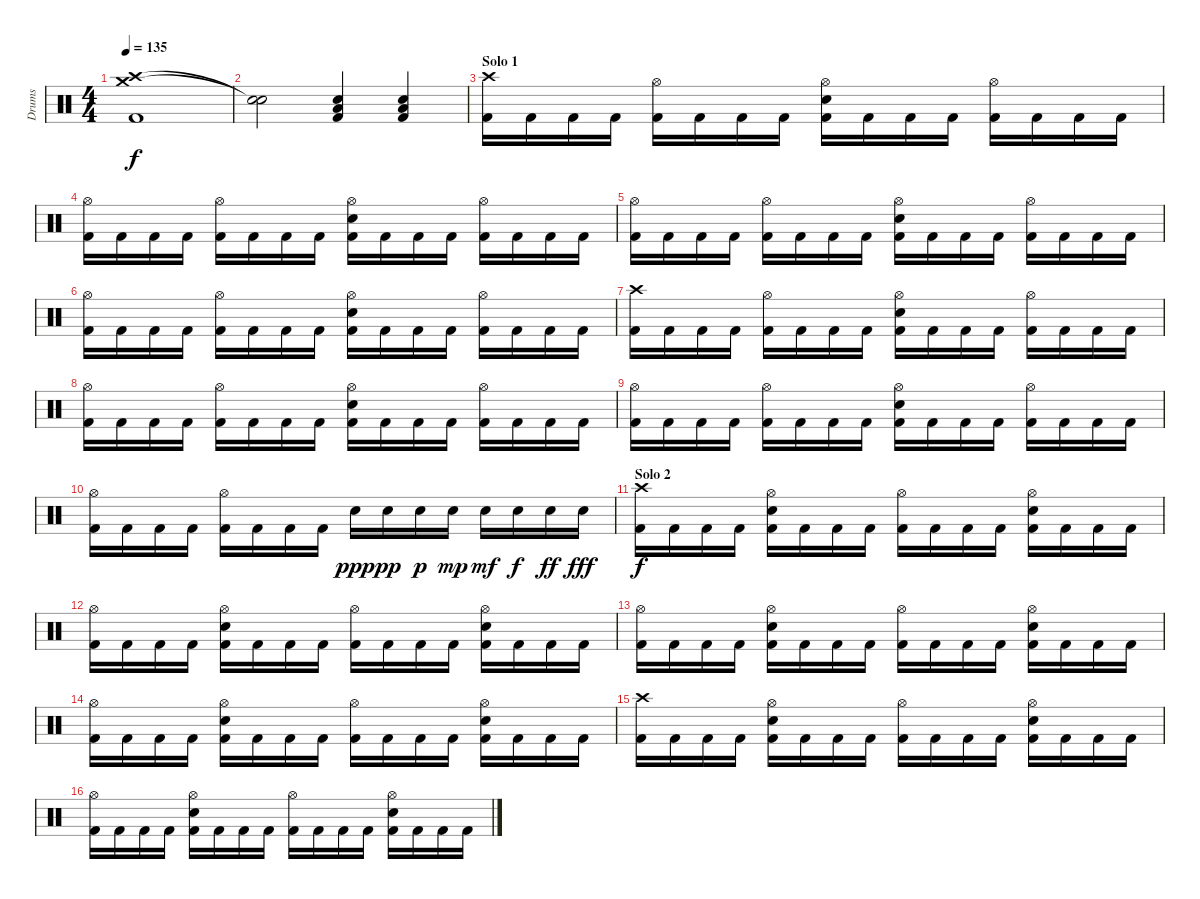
\track ("Drums" "Drums") {instrument percussion}
\staff {score}
\articulation defaults
\ts (4 4)
\section ("" "")
\tempo 135
\clef neutral
\ks c
("Crash high (hit)" "Crash medium (hit)" "Kick (hit) 2").1{dy f} |
("Snare (hit)"{t} "Snare (hit)"{t}).2 ("Electric Snare (hit)" "Low Floor Tom (hit)" "Kick (hit) 2").4 ("Electric Snare (hit)" "Low Floor Tom (hit)" "Kick (hit) 2").4 |
\section ("" "Solo 1")
("Crash high (hit)" "Kick (hit) 2").16 "Kick (hit) 2".16 "Kick (hit) 2".16 "Kick (hit) 2".16 ("Hi-Hat (open)" "Kick (hit) 2").16 "Kick (hit) 2".16 "Kick (hit) 2".16 "Kick (hit) 2".16 ("Hi-Hat (open)" "Electric Snare (hit)" "Kick (hit) 2").16 "Kick (hit) 2".16 "Kick (hit) 2".16 "Kick (hit) 2".16 ("Hi-Hat (open)" "Kick (hit) 2").16 "Kick (hit) 2".16 "Kick (hit) 2".16 "Kick (hit) 2".16 |
("Hi-Hat (open)" "Kick (hit) 2").16 "Kick (hit) 2".16 "Kick (hit) 2".16 "Kick (hit) 2".16 ("Hi-Hat (open)" "Kick (hit) 2").16 "Kick (hit) 2".16 "Kick (hit) 2".16 "Kick (hit) 2".16 ("Hi-Hat (open)" "Electric Snare (hit)" "Kick (hit) 2").16 "Kick (hit) 2".16 "Kick (hit) 2".16 "Kick (hit) 2".16 ("Hi-Hat (open)" "Kick (hit) 2").16 "Kick (hit) 2".16 "Kick (hit) 2".16 "Kick (hit) 2".16 |
("Hi-Hat (open)" "Kick (hit) 2").16 "Kick (hit) 2".16 "Kick (hit) 2".16 "Kick (hit) 2".16 ("Hi-Hat (open)" "Kick (hit) 2").16 "Kick (hit) 2".16 "Kick (hit) 2".16 "Kick (hit) 2".16 ("Hi-Hat (open)" "Electric Snare (hit)" "Kick (hit) 2").16 "Kick (hit) 2".16 "Kick (hit) 2".16 "Kick (hit) 2".16 ("Hi-Hat (open)" "Kick (hit) 2").16 "Kick (hit) 2".16 "Kick (hit) 2".16 "Kick (hit) 2".16 |
("Hi-Hat (open)" "Kick (hit) 2").16 "Kick (hit) 2".16 "Kick (hit) 2".16 "Kick (hit) 2".16 ("Hi-Hat (open)" "Kick (hit) 2").16 "Kick (hit) 2".16 "Kick (hit) 2".16 "Kick (hit) 2".16 ("Hi-Hat (open)" "Electric Snare (hit)" "Kick (hit) 2").16 "Kick (hit) 2".16 "Kick (hit) 2".16 "Kick (hit) 2".16 ("Hi-Hat (open)" "Kick (hit) 2").16 "Kick (hit) 2".16 "Kick (hit) 2".16 "Kick (hit) 2".16 |
("Crash high (hit)" "Kick (hit) 2").16 "Kick (hit) 2".16 "Kick (hit) 2".16 "Kick (hit) 2".16 ("Hi-Hat (open)" "Kick (hit) 2").16 "Kick (hit) 2".16 "Kick (hit) 2".16 "Kick (hit) 2".16 ("Hi-Hat (open)" "Electric Snare (hit)" "Kick (hit) 2").16 "Kick (hit) 2".16 "Kick (hit) 2".16 "Kick (hit) 2".16 ("Hi-Hat (open)" "Kick (hit) 2").16 "Kick (hit) 2".16 "Kick (hit) 2".16 "Kick (hit) 2".16 |
("Hi-Hat (open)" "Kick (hit) 2").16 "Kick (hit) 2".16 "Kick (hit) 2".16 "Kick (hit) 2".16 ("Hi-Hat (open)" "Kick (hit) 2").16 "Kick (hit) 2".16 "Kick (hit) 2".16 "Kick (hit) 2".16 ("Hi-Hat (open)" "Electric Snare (hit)" "Kick (hit) 2").16 "Kick (hit) 2".16 "Kick (hit) 2".16 "Kick (hit) 2".16 ("Hi-Hat (open)" "Kick (hit) 2").16 "Kick (hit) 2".16 "Kick (hit) 2".16 "Kick (hit) 2".16 |
("Hi-Hat (open)" "Kick (hit) 2").16 "Kick (hit) 2".16 "Kick (hit) 2".16 "Kick (hit) 2".16 ("Hi-Hat (open)" "Kick (hit) 2").16 "Kick (hit) 2".16 "Kick (hit) 2".16 "Kick (hit) 2".16 ("Hi-Hat (open)" "Electric Snare (hit)" "Kick (hit) 2").16 "Kick (hit) 2".16 "Kick (hit) 2".16 "Kick (hit) 2".16 ("Hi-Hat (open)" "Kick (hit) 2").16 "Kick (hit) 2".16 "Kick (hit) 2".16 "Kick (hit) 2".16 |
("Hi-Hat (open)" "Kick (hit) 2").16 "Kick (hit) 2".16 "Kick (hit) 2".16 "Kick (hit) 2".16 ("Hi-Hat (open)" "Kick (hit) 2").16 "Kick (hit) 2".16 "Kick (hit) 2".16 "Kick (hit) 2".16 "Electric Snare (hit)".16{dy ppp} "Electric Snare (hit)".16{dy pp} "Electric Snare (hit)".16{dy p} "Electric Snare (hit)".16{dy mp} "Electric Snare (hit)".16{dy mf} "Electric Snare (hit)".16{dy f} "Electric Snare (hit)".16{dy ff} "Electric Snare (hit)".16{dy fff} |
\section ("" "Solo 2")
("Crash high (hit)" "Kick (hit) 2").16{dy f} "Kick (hit) 2".16 "Kick (hit) 2".16 "Kick (hit) 2".16 ("Hi-Hat (open)" "Electric Snare (hit)" "Kick (hit) 2").16 "Kick (hit) 2".16 "Kick (hit) 2".16 "Kick (hit) 2".16 ("Hi-Hat (open)" "Kick (hit) 2").16 "Kick (hit) 2".16 "Kick (hit) 2".16 "Kick (hit) 2".16 ("Hi-Hat (open)" "Electric Snare (hit)" "Kick (hit) 2").16 "Kick (hit) 2".16 "Kick (hit) 2".16 "Kick (hit) 2".16 |
("Hi-Hat (open)" "Kick (hit) 2").16 "Kick (hit) 2".16 "Kick (hit) 2".16 "Kick (hit) 2".16 ("Hi-Hat (open)" "Electric Snare (hit)" "Kick (hit) 2").16 "Kick (hit) 2".16 "Kick (hit) 2".16 "Kick (hit) 2".16 ("Hi-Hat (open)" "Kick (hit) 2").16 "Kick (hit) 2".16 "Kick (hit) 2".16 "Kick (hit) 2".16 ("Hi-Hat (open)" "Electric Snare (hit)" "Kick (hit) 2").16 "Kick (hit) 2".16 "Kick (hit) 2".16 "Kick (hit) 2".16 |
("Hi-Hat (open)" "Kick (hit) 2").16 "Kick (hit) 2".16 "Kick (hit) 2".16 "Kick (hit) 2".16 ("Hi-Hat (open)" "Electric Snare (hit)" "Kick (hit) 2").16 "Kick (hit) 2".16 "Kick (hit) 2".16 "Kick (hit) 2".16 ("Hi-Hat (open)" "Kick (hit) 2").16 "Kick (hit) 2".16 "Kick (hit) 2".16 "Kick (hit) 2".16 ("Hi-Hat (open)" "Electric Snare (hit)" "Kick (hit) 2").16 "Kick (hit) 2".16 "Kick (hit) 2".16 "Kick (hit) 2".16 |
("Hi-Hat (open)" "Kick (hit) 2").16 "Kick (hit) 2".16 "Kick (hit) 2".16 "Kick (hit) 2".16 ("Hi-Hat (open)" "Electric Snare (hit)" "Kick (hit) 2").16 "Kick (hit) 2".16 "Kick (hit) 2".16 "Kick (hit) 2".16 ("Hi-Hat (open)" "Kick (hit) 2").16 "Kick (hit) 2".16 "Kick (hit) 2".16 "Kick (hit) 2".16 ("Hi-Hat (open)" "Electric Snare (hit)" "Kick (hit) 2").16 "Kick (hit) 2".16 "Kick (hit) 2".16 "Kick (hit) 2".16 |
("Crash high (hit)" "Kick (hit) 2").16 "Kick (hit) 2".16 "Kick (hit) 2".16 "Kick (hit) 2".16 ("Hi-Hat (open)" "Electric Snare (hit)" "Kick (hit) 2").16 "Kick (hit) 2".16 "Kick (hit) 2".16 "Kick (hit) 2".16 ("Hi-Hat (open)" "Kick (hit) 2").16 "Kick (hit) 2".16 "Kick (hit) 2".16 "Kick (hit) 2".16 ("Hi-Hat (open)" "Electric Snare (hit)" "Kick (hit) 2").16 "Kick (hit) 2".16 "Kick (hit) 2".16 "Kick (hit) 2".16 |
("Hi-Hat (open)" "Kick (hit) 2").16 "Kick (hit) 2".16 "Kick (hit) 2".16 "Kick (hit) 2".16 ("Hi-Hat (open)" "Electric Snare (hit)" "Kick (hit) 2").16 "Kick (hit) 2".16 "Kick (hit) 2".16 "Kick (hit) 2".16 ("Hi-Hat (open)" "Kick (hit) 2").16 "Kick (hit) 2".16 "Kick (hit) 2".16 "Kick (hit) 2".16 ("Hi-Hat (open)" "Electric Snare (hit)" "Kick (hit) 2").16 "Kick (hit) 2".16 "Kick (hit) 2".16 "Kick (hit) 2".16
